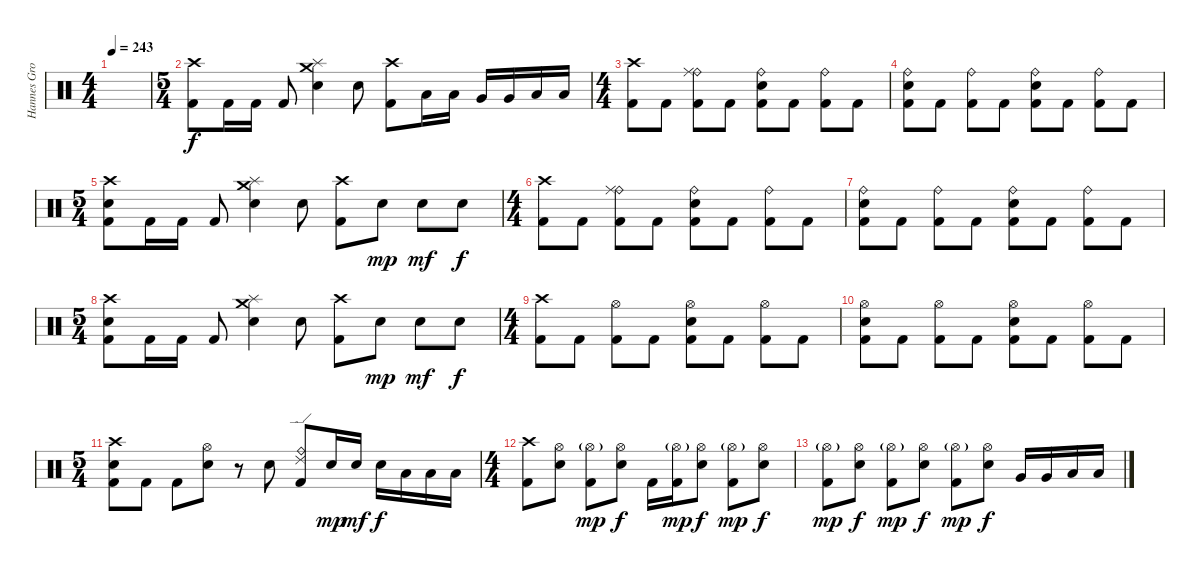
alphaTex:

\track ("Hannes Grossmann" "Hannes Gro") {instrument percussion}
\staff {score}
\articulation defaults
\ts (4 4)
\tempo 243
\clef neutral
\ks c
|
\ts (5 4)
("Crash high (hit)" "Kick (hit) 2").8 "Kick (hit) 2".16 "Kick (hit) 2".16 "Kick (hit) 2".8 ("Crash medium (hit)" "Splash (hit)" "Snare (hit) 2").4 "Snare (hit) 2".8 ("Crash high (hit)" "Kick (hit) 2").8 "Low Tom (hit)".16 "Low Tom (hit)".16 "Very Low Tom (hit)".16 "Very Low Tom (hit)".16 "Low Floor Tom (hit)".16 "Low Floor Tom (hit)".16 |
\ts (4 4)
("Crash high (hit)" "Kick (hit) 2").8 "Kick (hit) 2".8 ("Ride (bell)" "Ride (middle)" "Kick (hit) 2").8 "Kick (hit) 2".8 ("Ride (bell)" "Snare (hit) 2" "Kick (hit) 2").8 "Kick (hit) 2".8 ("Ride (bell)" "Kick (hit) 2").8 "Kick (hit) 2".8 |
("Ride (bell)" "Snare (hit) 2" "Kick (hit) 2").8 "Kick (hit) 2".8 ("Ride (bell)" "Kick (hit) 2").8 "Kick (hit) 2".8 ("Ride (bell)" "Snare (hit) 2" "Kick (hit) 2").8 "Kick (hit) 2".8 ("Ride (bell)" "Kick (hit) 2").8 "Kick (hit) 2".8 |
\ts (5 4)
("Crash high (hit)" "Snare (hit) 2" "Kick (hit) 2").8 "Kick (hit) 2".16 "Kick (hit) 2".16 "Kick (hit) 2".8 ("Crash medium (hit)" "Splash (hit)" "Snare (hit) 2").4 "Snare (hit) 2".8 ("Crash high (hit)" "Kick (hit) 2").8 "Snare (hit) 2".8{dy mp} "Snare (hit) 2".8{dy mf} "Snare (hit) 2".8{dy f} |
\ts (4 4)
("Crash high (hit)" "Kick (hit) 2").8 "Kick (hit) 2".8 ("Ride (bell)" "Ride (middle)" "Kick (hit) 2").8 "Kick (hit) 2".8 ("Ride (bell)" "Snare (hit) 2" "Kick (hit) 2").8 "Kick (hit) 2".8 ("Ride (bell)" "Kick (hit) 2").8 "Kick (hit) 2".8 |
("Ride (bell)" "Snare (hit) 2" "Kick (hit) 2").8 "Kick (hit) 2".8 ("Ride (bell)" "Kick (hit) 2").8 "Kick (hit) 2".8 ("Ride (bell)" "Snare (hit) 2" "Kick (hit) 2").8 "Kick (hit) 2".8 ("Ride (bell)" "Kick (hit) 2").8 "Kick (hit) 2".8 |
\ts (5 4)
("Crash high (hit)" "Snare (hit) 2" "Kick (hit) 2").8 "Kick (hit) 2".16 "Kick (hit) 2".16 "Kick (hit) 2".8 ("Crash medium (hit)" "Splash (hit)" "Snare (hit) 2").4 "Snare (hit) 2".8 ("Crash high (hit)" "Kick (hit) 2").8 "Snare (hit) 2".8{dy mp} "Snare (hit) 2".8{dy mf} "Snare (hit) 2".8{dy f} |
\ts (4 4)
("Crash high (hit)" "Kick (hit) 2").8 "Kick (hit) 2".8 ("Hi-Hat (open)" "Kick (hit) 2").8 "Kick (hit) 2".8 ("Hi-Hat (open)" "Snare (hit) 2" "Kick (hit) 2").8 "Kick (hit) 2".8 ("Hi-Hat (open)" "Kick (hit) 2").8 "Kick (hit) 2".8 |
("Hi-Hat (open)" "Snare (hit) 2" "Kick (hit) 2").8 "Kick (hit) 2".8 ("Hi-Hat (open)" "Kick (hit) 2").8 "Kick (hit) 2".8 ("Hi-Hat (open)" "Snare (hit) 2" "Kick (hit) 2").8 "Kick (hit) 2".8 ("Hi-Hat (open)" "Kick (hit) 2").8 "Kick (hit) 2".8 |
\ts (5 4)
("Crash high (hit)" "Snare (hit) 2" "Kick (hit) 2").8 "Kick (hit) 2".8 "Kick (hit) 2".8 ("Hi-Hat (open)" "Snare (hit) 2").8 r.8 "Snare (hit) 2".8 ("Ride (bell)" "Ride (edge) 2" "Kick (hit) 2").8 "Snare (hit) 2".16{dy mp} "Snare (hit) 2".16{dy mf} "Snare (hit) 2".16{dy f} "Low Tom (hit)".16 "Low Tom (hit)".16 "Low Tom (hit)".16 |
\ts (4 4)
("Crash high (hit)" "Kick (hit) 2").8 ("Hi-Hat (open)" "Snare (hit) 2").8 ("Hi-Hat (open)"{g} "Kick (hit) 2").8{dy mp} ("Hi-Hat (open)" "Snare (hit) 2").8{dy f} "Kick (hit) 2".16 ("Hi-Hat (open)"{g} "Kick (hit) 2").16{dy mp} ("Hi-Hat (open)" "Snare (hit) 2").8{dy f} ("Hi-Hat (open)"{g} "Kick (hit) 2").8{dy mp} ("Hi-Hat (open)" "Snare (hit) 2").8{dy f} |
("Hi-Hat (open)"{g} "Kick (hit) 2").8{dy mp} ("Hi-Hat (open)" "Snare (hit) 2").8{dy f} ("Hi-Hat (open)"{g} "Kick (hit) 2").8{dy mp} ("Hi-Hat (open)" "Snare (hit) 2").8{dy f} ("Hi-Hat (open)"{g} "Kick (hit) 2").8{dy mp} ("Hi-Hat (open)" "Snare (hit) 2").8{dy f} "Very Low Tom (hit)".16 "Very Low Tom (hit)".16 "Low Floor Tom (hit)".16 "Low Floor Tom (hit)".16
